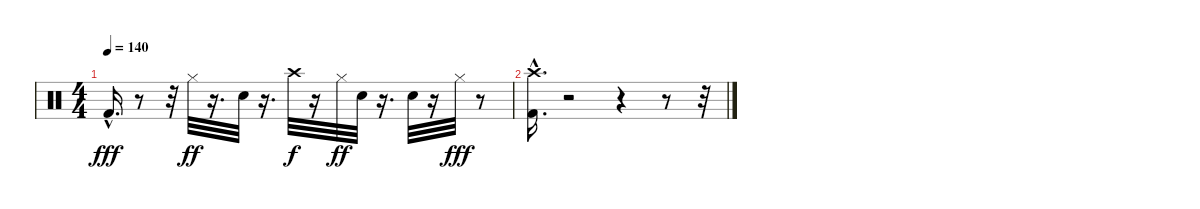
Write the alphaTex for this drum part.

\track "" {instrument percussion}
\staff {score}
\articulation defaults
\ts (4 4)
\tempo 140
\clef neutral
\ks c "Kick (hit) 2"{hac}.16{d dy fff}
r.8 r.32 "Hi-Hat (closed)".32{dy ff} r.16{d} "Electric Snare (hit)".32 r.16{d} "Crash high (hit)".32{dy f} r.16 "Hi-Hat (closed)".32{dy ff} "Electric Snare (hit)".32 r.16{d} "Electric Snare (hit)".32 r.16 "Hi-Hat (closed)".32{dy fff} r.8 |
("Crash high (hit)" "Kick (hit) 2"{hac}).16{d} r.2 r.4 r.8 r.32
